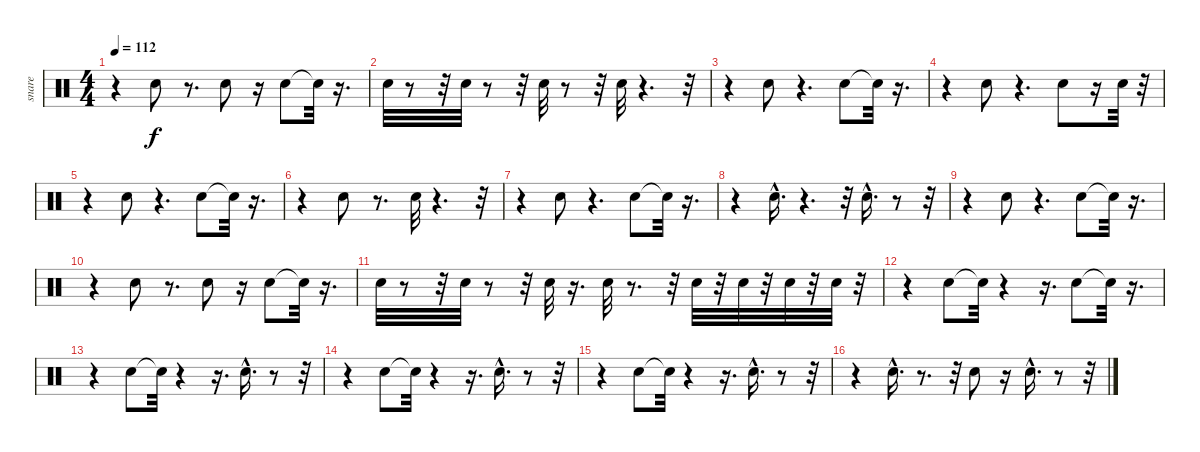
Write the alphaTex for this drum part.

\track ("snare" "snare") {instrument percussion}
\staff {score}
\articulation defaults
\ts (4 4)
\tempo 112
\clef neutral
\ks c
r.4{dy f} "Snare (hit) 2".8 r.8{d} "Snare (hit) 2".8 r.16 "Snare (hit) 2".8 "Snare (hit)"{t}.32 r.16{d} |
"Snare (hit) 2".32 r.8 r.32 "Snare (hit) 2".32 r.8 r.32 "Snare (hit) 2".32 r.8 r.32 "Snare (hit) 2".32 r.4{d} r.32 |
r.4 "Snare (hit) 2".8 r.4{d} "Snare (hit) 2".8 "Snare (hit)"{t}.32 r.16{d} |
r.4 "Snare (hit) 2".8 r.4{d} "Snare (hit) 2".8 r.16 "Snare (hit) 2".32 r.32 |
r.4 "Snare (hit) 2".8 r.4{d} "Snare (hit) 2".8 "Snare (hit)"{t}.32 r.16{d} |
r.4 "Snare (hit) 2".8 r.8{d} "Snare (hit) 2".32 r.4{d} r.32 |
r.4 "Snare (hit) 2".8 r.4{d} "Snare (hit) 2".8 "Snare (hit)"{t}.32 r.16{d} |
r.4 "Snare (hit) 2"{hac}.16{d} r.4{d} r.32 "Snare (hit) 2"{hac}.16{d} r.8 r.32 |
r.4 "Snare (hit) 2".8 r.4{d} "Snare (hit) 2".8 "Snare (hit)"{t}.32 r.16{d} |
r.4 "Snare (hit) 2".8 r.8{d} "Snare (hit) 2".8 r.16 "Snare (hit) 2".8 "Snare (hit)"{t}.32 r.16{d} |
"Snare (hit) 2".32 r.8 r.32 "Snare (hit) 2".32 r.8 r.32 "Snare (hit) 2".32 r.16{d} "Snare (hit) 2".32 r.8{d} r.32 "Snare (hit) 2".32 r.32 "Snare (hit) 2".32 r.32 "Snare (hit) 2".32 r.32 "Snare (hit) 2".32 r.32 |
r.4 "Snare (hit) 2".8 "Snare (hit)"{t}.32 r.4 r.16{d} "Snare (hit) 2".8 "Snare (hit)"{t}.32 r.16{d} |
r.4 "Snare (hit) 2".8 "Snare (hit)"{t}.32 r.4 r.16{d} "Snare (hit) 2"{hac}.16{d} r.8 r.32 |
r.4 "Snare (hit) 2".8 "Snare (hit)"{t}.32 r.4 r.16{d} "Snare (hit) 2"{hac}.16{d} r.8 r.32 |
r.4 "Snare (hit) 2".8 "Snare (hit)"{t}.32 r.4 r.16{d} "Snare (hit) 2"{hac}.16{d} r.8 r.32 |
r.4 "Snare (hit) 2"{hac}.16{d} r.8{d} r.32 "Snare (hit) 2".8 r.16 "Snare (hit) 2"{hac}.16{d} r.8 r.32
